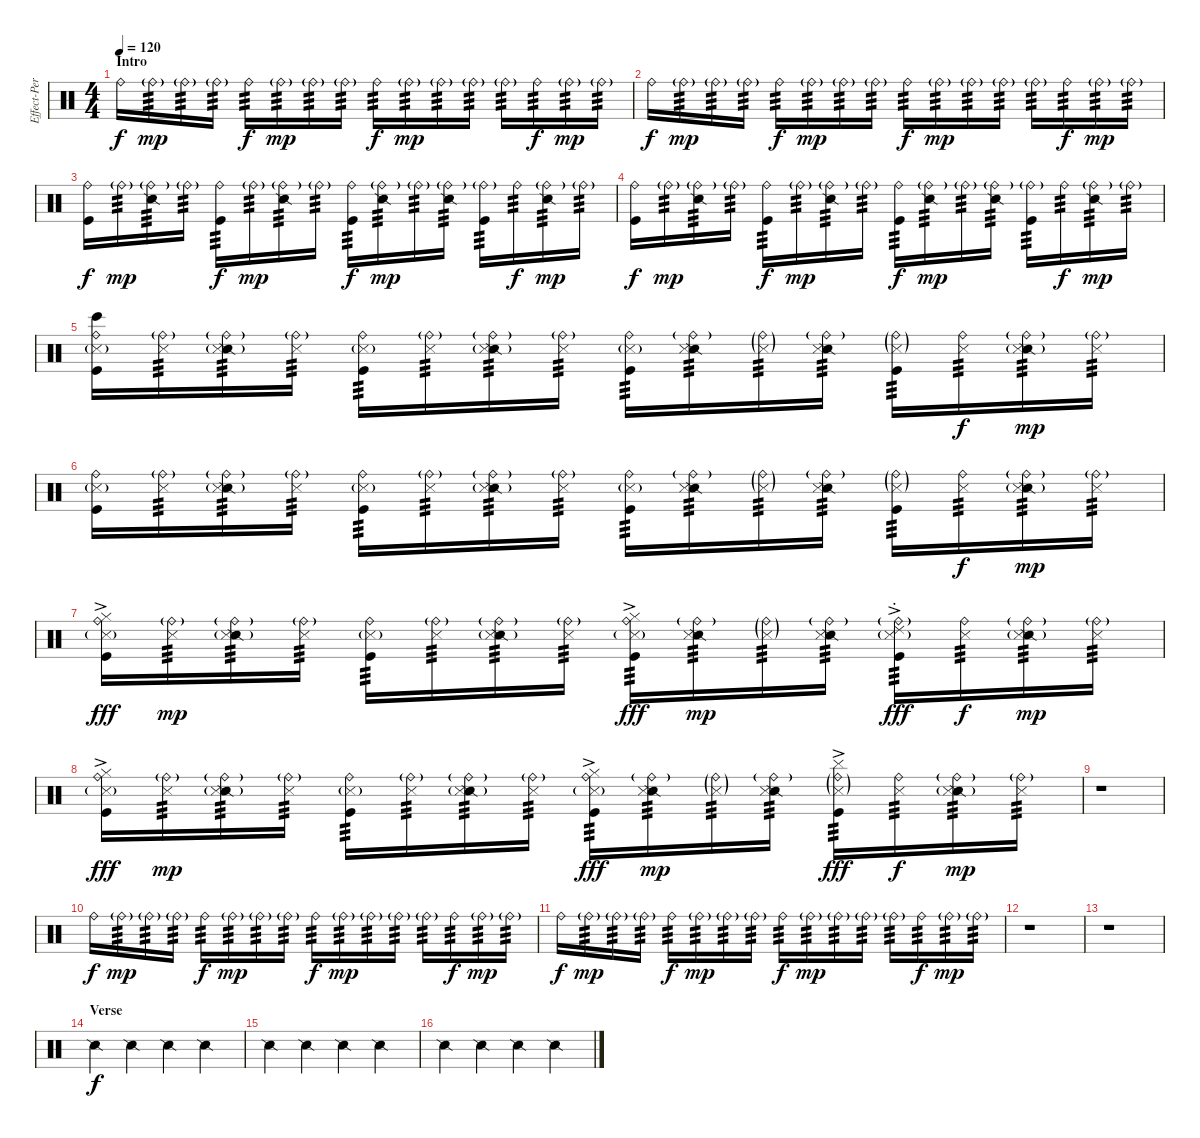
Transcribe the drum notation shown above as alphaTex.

\track ("Effect-Percs" "Effect-Per") {instrument percussion}
\staff {score}
\articulation defaults
\ts (4 4)
\section ("" "Intro")
\tempo 120
\clef neutral
\ks c "Ride (bell)".16{dy f} "Ride (bell)"{g}.16{tp 3 dy mp} "Ride (bell)"{g}.16{tp 3} "Ride (bell)"{g}.16{tp 3} "Ride (bell)".16{tp 3 dy f} "Ride (bell)"{g}.16{tp 3 dy mp} "Ride (bell)"{g}.16{tp 3} "Ride (bell)"{g}.16{tp 3} "Ride (bell)".16{tp 3 dy f} "Ride (bell)"{g}.16{tp 3 dy mp} "Ride (bell)"{g}.16{tp 3} "Ride (bell)"{g}.16{tp 3} "Ride (bell)"{g}.16{tp 3} "Ride (bell)".16{tp 3 dy f} "Ride (bell)"{g}.16{tp 3 dy mp} "Ride (bell)"{g}.16{tp 3}
|
"Ride (bell)".16{dy f} "Ride (bell)"{g}.16{tp 3 dy mp} "Ride (bell)"{g}.16{tp 3} "Ride (bell)"{g}.16{tp 3} "Ride (bell)".16{tp 3 dy f} "Ride (bell)"{g}.16{tp 3 dy mp} "Ride (bell)"{g}.16{tp 3} "Ride (bell)"{g}.16{tp 3} "Ride (bell)".16{tp 3 dy f} "Ride (bell)"{g}.16{tp 3 dy mp} "Ride (bell)"{g}.16{tp 3} "Ride (bell)"{g}.16{tp 3} "Ride (bell)"{g}.16{tp 3} "Ride (bell)".16{tp 3 dy f} "Ride (bell)"{g}.16{tp 3 dy mp} "Ride (bell)"{g}.16{tp 3} |
("Ride (bell)" "Kick (hit)").16{dy f} "Ride (bell)"{g}.16{tp 3 dy mp} ("Ride (bell)"{g} "Snare (side stick) 2").16{tp 3} "Ride (bell)"{g}.16{tp 3} ("Ride (bell)" "Kick (hit)").16{tp 3 dy f} "Ride (bell)"{g}.16{tp 3 dy mp} ("Ride (bell)"{g} "Snare (side stick) 2").16{tp 3} "Ride (bell)"{g}.16{tp 3} ("Ride (bell)" "Kick (hit)").16{tp 3 dy f} ("Ride (bell)"{g} "Snare (side stick) 2").16{tp 3 dy mp} "Ride (bell)"{g}.16{tp 3} ("Ride (bell)"{g} "Snare (side stick) 2").16{tp 3} ("Ride (bell)"{g} "Kick (hit)").16{tp 3} "Ride (bell)".16{tp 3 dy f} ("Ride (bell)"{g} "Snare (side stick) 2").16{tp 3 dy mp} "Ride (bell)"{g}.16{tp 3} |
("Ride (bell)" "Kick (hit)").16{dy f} "Ride (bell)"{g}.16{tp 3 dy mp} ("Ride (bell)"{g} "Snare (side stick) 2").16{tp 3} "Ride (bell)"{g}.16{tp 3} ("Ride (bell)" "Kick (hit)").16{tp 3 dy f} "Ride (bell)"{g}.16{tp 3 dy mp} ("Ride (bell)"{g} "Snare (side stick) 2").16{tp 3} "Ride (bell)"{g}.16{tp 3} ("Ride (bell)" "Kick (hit)").16{tp 3 dy f} ("Ride (bell)"{g} "Snare (side stick) 2").16{tp 3 dy mp} "Ride (bell)"{g}.16{tp 3} ("Ride (bell)"{g} "Snare (side stick) 2").16{tp 3} ("Ride (bell)"{g} "Kick (hit)").16{tp 3} "Ride (bell)".16{tp 3 dy f} ("Ride (bell)"{g} "Snare (side stick) 2").16{tp 3 dy mp} "Ride (bell)"{g}.16{tp 3} |
("Ride (bell)" "Kick (hit)" "Metronome (hit)"{g} "Bongo High (hit)").16 ("Ride (bell)"{g} "Metronome (hit)").16{tp 3} ("Ride (bell)"{g} "Snare (side stick) 2" "Metronome (hit)"{g}).16{tp 3} ("Ride (bell)"{g} "Metronome (hit)").16{tp 3} ("Ride (bell)" "Kick (hit)" "Metronome (hit)"{g}).16{tp 3} ("Ride (bell)"{g} "Metronome (hit)").16{tp 3} ("Ride (bell)"{g} "Snare (side stick) 2" "Metronome (hit)"{g}).16{tp 3} ("Ride (bell)"{g} "Metronome (hit)").16{tp 3} ("Ride (bell)" "Kick (hit)" "Metronome (hit)"{g}).16{tp 3} ("Ride (bell)"{g} "Snare (side stick) 2" "Metronome (hit)").16{tp 3} ("Ride (bell)"{g} "Metronome (hit)"{g}).16{tp 3} ("Ride (bell)"{g} "Snare (side stick) 2" "Metronome (hit)").16{tp 3} ("Ride (bell)"{g} "Kick (hit)" "Metronome (hit)"{g}).16{tp 3} ("Ride (bell)" "Metronome (hit)").16{tp 3 dy f} ("Ride (bell)"{g} "Snare (side stick) 2" "Metronome (hit)"{g}).16{tp 3 dy mp} ("Ride (bell)"{g} "Metronome (hit)").16{tp 3} |
("Ride (bell)" "Kick (hit)" "Metronome (hit)"{g}).16 ("Ride (bell)"{g} "Metronome (hit)").16{tp 3} ("Ride (bell)"{g} "Snare (side stick) 2" "Metronome (hit)"{g}).16{tp 3} ("Ride (bell)"{g} "Metronome (hit)").16{tp 3} ("Ride (bell)" "Kick (hit)" "Metronome (hit)"{g}).16{tp 3} ("Ride (bell)"{g} "Metronome (hit)").16{tp 3} ("Ride (bell)"{g} "Snare (side stick) 2" "Metronome (hit)"{g}).16{tp 3} ("Ride (bell)"{g} "Metronome (hit)").16{tp 3} ("Ride (bell)" "Kick (hit)" "Metronome (hit)"{g}).16{tp 3} ("Ride (bell)"{g} "Snare (side stick) 2" "Metronome (hit)").16{tp 3} ("Ride (bell)"{g} "Metronome (hit)"{g}).16{tp 3} ("Ride (bell)"{g} "Snare (side stick) 2" "Metronome (hit)").16{tp 3} ("Ride (bell)"{g} "Kick (hit)" "Metronome (hit)"{g}).16{tp 3} ("Ride (bell)" "Metronome (hit)").16{tp 3 dy f} ("Ride (bell)"{g} "Snare (side stick) 2" "Metronome (hit)"{g}).16{tp 3 dy mp} ("Ride (bell)"{g} "Metronome (hit)").16{tp 3} |
("Ride (bell)" "Kick (hit)" "Metronome (hit)"{g} "Hi-Hat (closed)"{ac}).16{dy fff} ("Ride (bell)"{g} "Metronome (hit)").16{tp 3 dy mp} ("Ride (bell)"{g} "Snare (side stick) 2" "Metronome (hit)"{g}).16{tp 3} ("Ride (bell)"{g} "Metronome (hit)").16{tp 3} ("Ride (bell)" "Kick (hit)" "Metronome (hit)"{g}).16{tp 3} ("Ride (bell)"{g} "Metronome (hit)").16{tp 3} ("Ride (bell)"{g} "Snare (side stick) 2" "Metronome (hit)"{g}).16{tp 3} ("Ride (bell)"{g} "Metronome (hit)").16{tp 3} ("Ride (bell)" "Kick (hit)" "Metronome (hit)"{g} "Hi-Hat (closed)"{ac}).16{tp 3 dy fff} ("Ride (bell)"{g} "Snare (side stick) 2" "Metronome (hit)").16{tp 3 dy mp} ("Ride (bell)"{g} "Metronome (hit)"{g}).16{tp 3} ("Ride (bell)"{g} "Snare (side stick) 2" "Metronome (hit)").16{tp 3} ("Ride (bell)"{g} "Kick (hit)" "Metronome (hit)"{g} "Ride (choke) 2"{ac}).16{tp 3 dy fff} ("Ride (bell)" "Metronome (hit)").16{tp 3 dy f} ("Ride (bell)"{g} "Snare (side stick) 2" "Metronome (hit)"{g}).16{tp 3 dy mp} ("Ride (bell)"{g} "Metronome (hit)").16{tp 3} |
("Ride (bell)" "Kick (hit)" "Metronome (hit)"{g} "Hi-Hat (closed)"{ac}).16{dy fff} ("Ride (bell)"{g} "Metronome (hit)").16{tp 3 dy mp} ("Ride (bell)"{g} "Snare (side stick) 2" "Metronome (hit)"{g}).16{tp 3} ("Ride (bell)"{g} "Metronome (hit)").16{tp 3} ("Ride (bell)" "Kick (hit)" "Metronome (hit)"{g}).16{tp 3} ("Ride (bell)"{g} "Metronome (hit)").16{tp 3} ("Ride (bell)"{g} "Snare (side stick) 2" "Metronome (hit)"{g}).16{tp 3} ("Ride (bell)"{g} "Metronome (hit)").16{tp 3} ("Ride (bell)" "Kick (hit)" "Metronome (hit)"{g} "Hi-Hat (closed)"{ac}).16{tp 3 dy fff} ("Ride (bell)"{g} "Snare (side stick) 2" "Metronome (hit)").16{tp 3 dy mp} ("Ride (bell)"{g} "Metronome (hit)"{g}).16{tp 3} ("Ride (bell)"{g} "Snare (side stick) 2" "Metronome (hit)").16{tp 3} ("Ride (bell)"{g} "Kick (hit)" "Metronome (hit)"{g} "Cymbal (hit)"{ac}).16{tp 3 dy fff} ("Ride (bell)" "Metronome (hit)").16{tp 3 dy f} ("Ride (bell)"{g} "Snare (side stick) 2" "Metronome (hit)"{g}).16{tp 3 dy mp} ("Ride (bell)"{g} "Metronome (hit)").16{tp 3} |
r.1 |
"Ride (bell)".16{dy f} "Ride (bell)"{g}.16{tp 3 dy mp} "Ride (bell)"{g}.16{tp 3} "Ride (bell)"{g}.16{tp 3} "Ride (bell)".16{tp 3 dy f} "Ride (bell)"{g}.16{tp 3 dy mp} "Ride (bell)"{g}.16{tp 3} "Ride (bell)"{g}.16{tp 3} "Ride (bell)".16{tp 3 dy f} "Ride (bell)"{g}.16{tp 3 dy mp} "Ride (bell)"{g}.16{tp 3} "Ride (bell)"{g}.16{tp 3} "Ride (bell)"{g}.16{tp 3} "Ride (bell)".16{tp 3 dy f} "Ride (bell)"{g}.16{tp 3 dy mp} "Ride (bell)"{g}.16{tp 3} |
"Ride (bell)".16{dy f} "Ride (bell)"{g}.16{tp 3 dy mp} "Ride (bell)"{g}.16{tp 3} "Ride (bell)"{g}.16{tp 3} "Ride (bell)".16{tp 3 dy f} "Ride (bell)"{g}.16{tp 3 dy mp} "Ride (bell)"{g}.16{tp 3} "Ride (bell)"{g}.16{tp 3} "Ride (bell)".16{tp 3 dy f} "Ride (bell)"{g}.16{tp 3 dy mp} "Ride (bell)"{g}.16{tp 3} "Ride (bell)"{g}.16{tp 3} "Ride (bell)"{g}.16{tp 3} "Ride (bell)".16{tp 3 dy f} "Ride (bell)"{g}.16{tp 3 dy mp} "Ride (bell)"{g}.16{tp 3} |
r.1 |
r.1 |
\section ("" "Verse")
"Snare (side stick) 2".4{dy f} "Snare (side stick) 2".4 "Snare (side stick) 2".4 "Snare (side stick) 2".4 |
"Snare (side stick) 2".4 "Snare (side stick) 2".4 "Snare (side stick) 2".4 "Snare (side stick) 2".4 |
"Snare (side stick) 2".4 "Snare (side stick) 2".4 "Snare (side stick) 2".4 "Snare (side stick) 2".4
